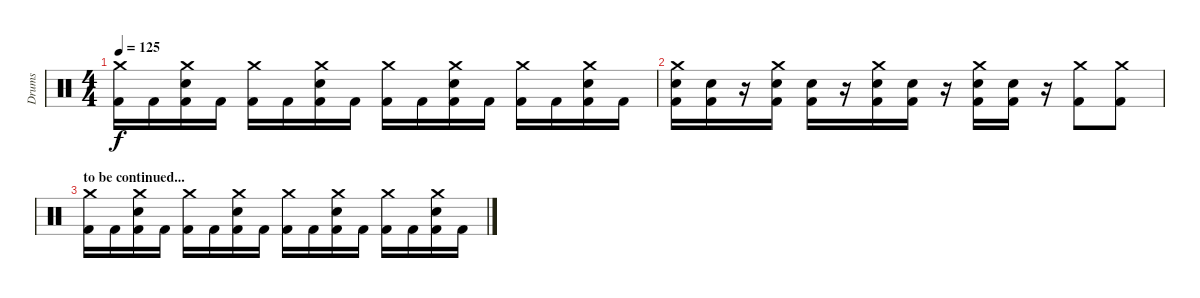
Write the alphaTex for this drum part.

\track ("Drums" "Drums") {instrument percussion}
\staff {score}
\articulation defaults
\ts (4 4)
\tempo 125
\clef neutral
\ks c
("Crash medium (hit)" "Kick (hit) 2").16{dy f} "Kick (hit) 2".16 ("Crash medium (hit)" "Electric Snare (hit)" "Kick (hit) 2").16 "Kick (hit) 2".16 ("Crash medium (hit)" "Kick (hit) 2").16 "Kick (hit) 2".16 ("Crash medium (hit)" "Electric Snare (hit)" "Kick (hit) 2").16 "Kick (hit) 2".16 ("Crash medium (hit)" "Kick (hit) 2").16 "Kick (hit) 2".16 ("Crash medium (hit)" "Electric Snare (hit)" "Kick (hit) 2").16 "Kick (hit) 2".16 ("Crash medium (hit)" "Kick (hit) 2").16 "Kick (hit) 2".16 ("Crash medium (hit)" "Electric Snare (hit)" "Kick (hit) 2").16 "Kick (hit) 2".16 |
("Crash medium (hit)" "Electric Snare (hit)" "Kick (hit) 2").16 ("Electric Snare (hit)" "Kick (hit) 2").16 r.16 ("Crash medium (hit)" "Electric Snare (hit)" "Kick (hit) 2").16 ("Electric Snare (hit)" "Kick (hit) 2").16 r.16 ("Crash medium (hit)" "Electric Snare (hit)" "Kick (hit) 2").16 ("Electric Snare (hit)" "Kick (hit) 2").16 r.16 ("Crash medium (hit)" "Electric Snare (hit)" "Kick (hit) 2").16 ("Electric Snare (hit)" "Kick (hit) 2").16 r.16 ("Crash medium (hit)" "Kick (hit) 2").8 ("Crash medium (hit)" "Kick (hit) 2").8 |
\section ("" "to be continued...")
("Crash medium (hit)" "Kick (hit) 2").16 "Kick (hit) 2".16 ("Crash medium (hit)" "Electric Snare (hit)" "Kick (hit) 2").16 "Kick (hit) 2".16 ("Crash medium (hit)" "Kick (hit) 2").16 "Kick (hit) 2".16 ("Crash medium (hit)" "Electric Snare (hit)" "Kick (hit) 2").16 "Kick (hit) 2".16 ("Crash medium (hit)" "Kick (hit) 2").16 "Kick (hit) 2".16 ("Crash medium (hit)" "Electric Snare (hit)" "Kick (hit) 2").16 "Kick (hit) 2".16 ("Crash medium (hit)" "Kick (hit) 2").16 "Kick (hit) 2".16 ("Crash medium (hit)" "Electric Snare (hit)" "Kick (hit) 2").16 "Kick (hit) 2".16
